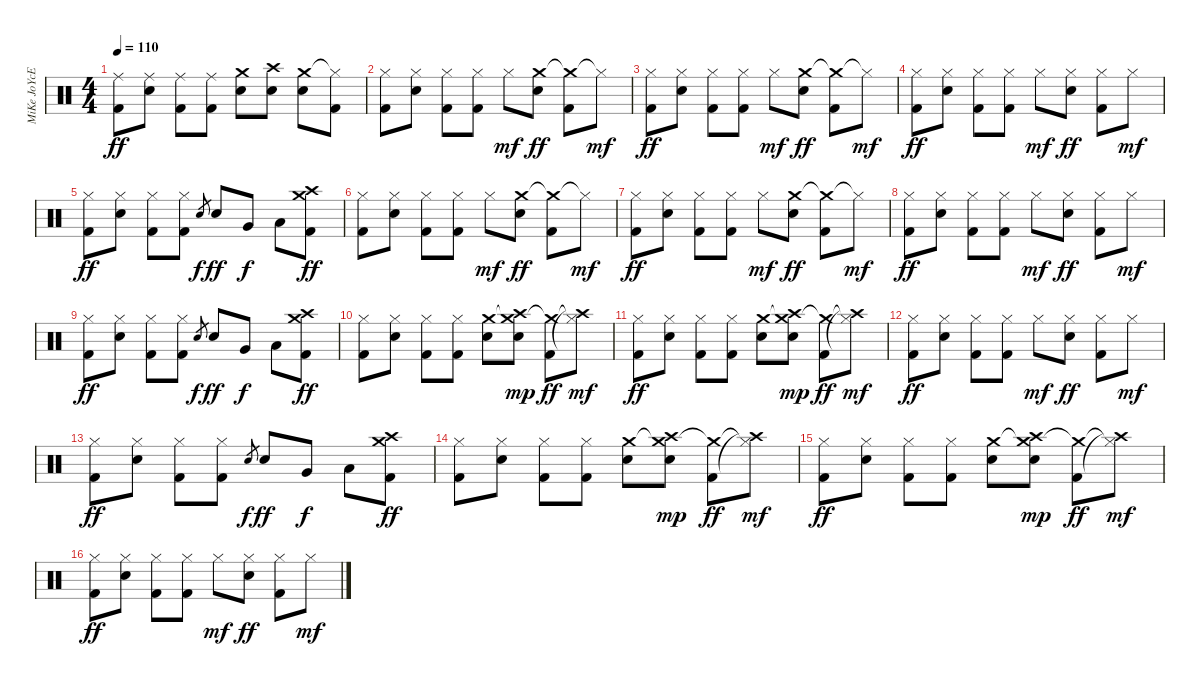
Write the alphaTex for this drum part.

\track ("MiKe JoYcE" "MiKe JoYcE") {instrument percussion}
\staff {score}
\articulation defaults
\ts (4 4)
\tempo 110
\clef neutral
\ks c
("Ride (middle)" "Kick (hit) 2").8{dy ff} ("Ride (middle)" "Electric Snare (hit)").8 ("Ride (middle)" "Kick (hit) 2").8 ("Ride (middle)" "Kick (hit) 2").8 ("Crash medium (hit)" "Electric Snare (hit)").8 ("Crash high (hit)" "Electric Snare (hit)").8 ("Crash medium (hit)" "Electric Snare (hit)").8 ("Hi-Hat (closed)"{t} "Kick (hit) 2").8 |
("Hi-Hat (closed)" "Kick (hit) 2").8 ("Hi-Hat (closed)" "Electric Snare (hit)").8 ("Hi-Hat (closed)" "Kick (hit) 2").8 ("Hi-Hat (closed)" "Kick (hit) 2").8 "Hi-Hat (closed)".8{dy mf} ("Crash medium (hit)" "Electric Snare (hit)").8{dy ff} ("Crash medium (hit)"{t} "Kick (hit) 2").8 "Hi-Hat (closed)"{t}.8{dy mf} |
("Hi-Hat (closed)" "Kick (hit) 2").8{dy ff} ("Hi-Hat (closed)" "Electric Snare (hit)").8 ("Hi-Hat (closed)" "Kick (hit) 2").8 ("Hi-Hat (closed)" "Kick (hit) 2").8 "Hi-Hat (closed)".8{dy mf} ("Crash medium (hit)" "Electric Snare (hit)").8{dy ff} ("Crash medium (hit)"{t} "Kick (hit) 2").8 "Hi-Hat (closed)"{t}.8{dy mf} |
("Hi-Hat (closed)" "Kick (hit) 2").8{dy ff} ("Hi-Hat (closed)" "Electric Snare (hit)").8 ("Hi-Hat (closed)" "Kick (hit) 2").8 ("Hi-Hat (closed)" "Kick (hit) 2").8 "Hi-Hat (closed)".8{dy mf} ("Hi-Hat (closed)" "Electric Snare (hit)").8{dy ff} ("Hi-Hat (closed)" "Kick (hit) 2").8 "Hi-Hat (closed)".8{dy mf} |
("Hi-Hat (closed)" "Kick (hit) 2").8{dy ff} ("Hi-Hat (closed)" "Electric Snare (hit)").8 ("Hi-Hat (closed)" "Kick (hit) 2").8 ("Hi-Hat (closed)" "Kick (hit) 2").8 "Electric Snare (hit)".8{gr dy f} "Electric Snare (hit)".8{dy ff} "Very Low Tom (hit)".8{dy f} "Low Floor Tom (hit)".8 ("Crash high (hit)" "Crash medium (hit)" "Kick (hit) 2").8{dy ff} |
("Hi-Hat (closed)" "Kick (hit) 2").8 ("Hi-Hat (closed)" "Electric Snare (hit)").8 ("Hi-Hat (closed)" "Kick (hit) 2").8 ("Hi-Hat (closed)" "Kick (hit) 2").8 "Hi-Hat (closed)".8{dy mf} ("Crash medium (hit)" "Electric Snare (hit)").8{dy ff} ("Crash medium (hit)"{t} "Kick (hit) 2").8 "Hi-Hat (closed)"{t}.8{dy mf} |
("Hi-Hat (closed)" "Kick (hit) 2").8{dy ff} ("Hi-Hat (closed)" "Electric Snare (hit)").8 ("Hi-Hat (closed)" "Kick (hit) 2").8 ("Hi-Hat (closed)" "Kick (hit) 2").8 "Hi-Hat (closed)".8{dy mf} ("Crash medium (hit)" "Electric Snare (hit)").8{dy ff} ("Crash medium (hit)"{t} "Kick (hit) 2").8 "Hi-Hat (closed)"{t}.8{dy mf} |
("Hi-Hat (closed)" "Kick (hit) 2").8{dy ff} ("Hi-Hat (closed)" "Electric Snare (hit)").8 ("Hi-Hat (closed)" "Kick (hit) 2").8 ("Hi-Hat (closed)" "Kick (hit) 2").8 "Hi-Hat (closed)".8{dy mf} ("Hi-Hat (closed)" "Electric Snare (hit)").8{dy ff} ("Hi-Hat (closed)" "Kick (hit) 2").8 "Hi-Hat (closed)".8{dy mf} |
("Hi-Hat (closed)" "Kick (hit) 2").8{dy ff} ("Hi-Hat (closed)" "Electric Snare (hit)").8 ("Hi-Hat (closed)" "Kick (hit) 2").8 ("Hi-Hat (closed)" "Kick (hit) 2").8 "Electric Snare (hit)".8{gr dy f} "Electric Snare (hit)".8{dy ff} "Very Low Tom (hit)".8{dy f} "Low Floor Tom (hit)".8 ("Crash medium (hit)" "Crash high (hit)" "Kick (hit) 2").8{dy ff} |
("Hi-Hat (closed)" "Kick (hit) 2").8 ("Hi-Hat (closed)" "Electric Snare (hit)").8 ("Hi-Hat (closed)" "Kick (hit) 2").8 ("Hi-Hat (closed)" "Kick (hit) 2").8 ("Crash medium (hit)" "Electric Snare (hit)").8 ("Crash medium (hit)"{t} "Electric Snare (hit)" "Crash high (hit)").8{dy mp} ("Crash medium (hit)"{t} "Kick (hit) 2").8{dy ff} ("Hi-Hat (closed)"{t} "Crash high (hit)"{t}).8{dy mf} |
("Hi-Hat (closed)" "Kick (hit) 2").8{dy ff} ("Hi-Hat (closed)" "Electric Snare (hit)").8 ("Hi-Hat (closed)" "Kick (hit) 2").8 ("Hi-Hat (closed)" "Kick (hit) 2").8 ("Crash medium (hit)" "Electric Snare (hit)").8 ("Crash medium (hit)"{t} "Electric Snare (hit)" "Crash high (hit)").8{dy mp} ("Crash medium (hit)"{t} "Kick (hit) 2").8{dy ff} ("Hi-Hat (closed)"{t} "Crash high (hit)"{t}).8{dy mf} |
("Hi-Hat (closed)" "Kick (hit) 2").8{dy ff} ("Hi-Hat (closed)" "Electric Snare (hit)").8 ("Hi-Hat (closed)" "Kick (hit) 2").8 ("Hi-Hat (closed)" "Kick (hit) 2").8 "Hi-Hat (closed)".8{dy mf} ("Hi-Hat (closed)" "Electric Snare (hit)").8{dy ff} ("Hi-Hat (closed)" "Kick (hit) 2").8 "Hi-Hat (closed)".8{dy mf} |
("Hi-Hat (closed)" "Kick (hit) 2").8{dy ff} ("Hi-Hat (closed)" "Electric Snare (hit)").8 ("Hi-Hat (closed)" "Kick (hit) 2").8 ("Hi-Hat (closed)" "Kick (hit) 2").8 "Electric Snare (hit)".8{gr dy f} "Electric Snare (hit)".8{dy ff} "Very Low Tom (hit)".8{dy f} "Low Floor Tom (hit)".8 ("Crash high (hit)" "Crash medium (hit)" "Kick (hit) 2").8{dy ff} |
("Hi-Hat (closed)" "Kick (hit) 2").8 ("Hi-Hat (closed)" "Electric Snare (hit)").8 ("Hi-Hat (closed)" "Kick (hit) 2").8 ("Hi-Hat (closed)" "Kick (hit) 2").8 ("Crash medium (hit)" "Electric Snare (hit)").8 ("Crash medium (hit)"{t} "Electric Snare (hit)" "Crash high (hit)").8{dy mp} ("Crash medium (hit)"{t} "Kick (hit) 2").8{dy ff} ("Hi-Hat (closed)"{t} "Crash high (hit)"{t}).8{dy mf} |
("Hi-Hat (closed)" "Kick (hit) 2").8{dy ff} ("Hi-Hat (closed)" "Electric Snare (hit)").8 ("Hi-Hat (closed)" "Kick (hit) 2").8 ("Hi-Hat (closed)" "Kick (hit) 2").8 ("Crash medium (hit)" "Electric Snare (hit)").8 ("Crash medium (hit)"{t} "Electric Snare (hit)" "Crash high (hit)").8{dy mp} ("Crash medium (hit)"{t} "Kick (hit) 2").8{dy ff} ("Hi-Hat (closed)"{t} "Crash high (hit)"{t}).8{dy mf} |
("Hi-Hat (closed)" "Kick (hit) 2").8{dy ff} ("Hi-Hat (closed)" "Electric Snare (hit)").8 ("Hi-Hat (closed)" "Kick (hit) 2").8 ("Hi-Hat (closed)" "Kick (hit) 2").8 "Hi-Hat (closed)".8{dy mf} ("Hi-Hat (closed)" "Electric Snare (hit)").8{dy ff} ("Hi-Hat (closed)" "Kick (hit) 2").8 "Hi-Hat (closed)".8{dy mf}
